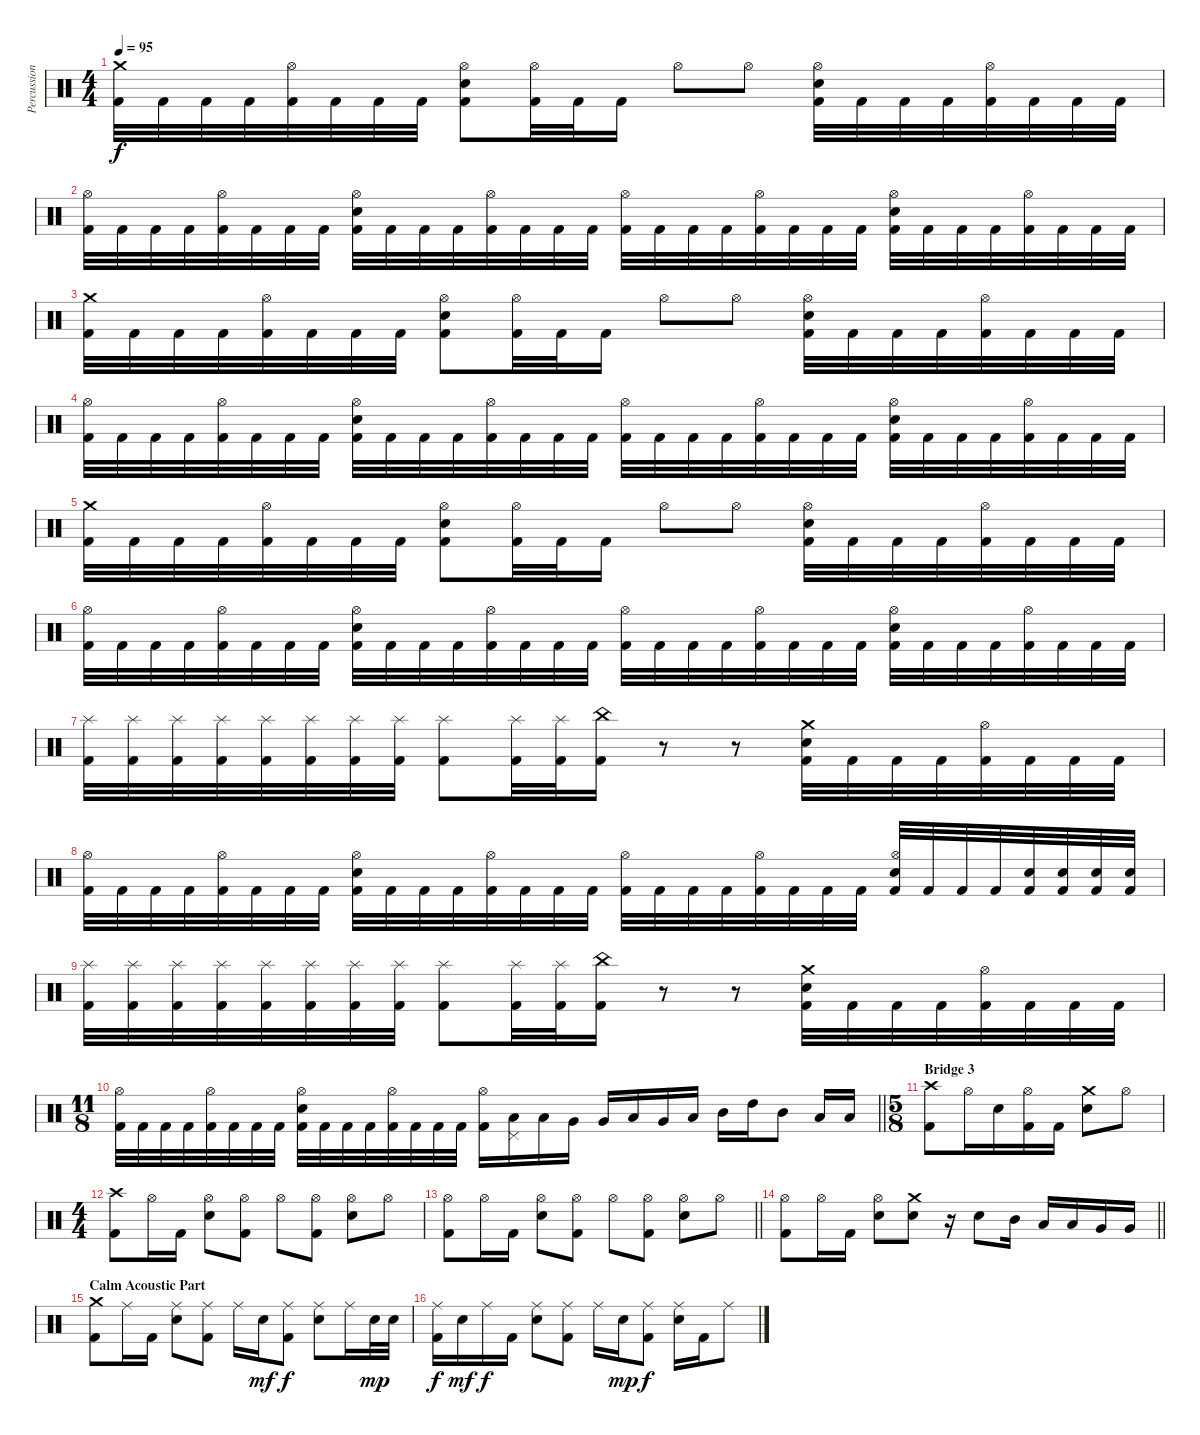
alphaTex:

\track ("Percussion" "Percussion") {instrument percussion}
\staff {score}
\articulation defaults
\ts (4 4)
\tempo 95
\clef neutral
\ks c
("Crash medium (hit)" "Kick (hit) 2").32{dy f} "Kick (hit) 2".32 "Kick (hit) 2".32 "Kick (hit) 2".32 ("Hi-Hat (open)" "Kick (hit) 2").32 "Kick (hit) 2".32 "Kick (hit) 2".32 "Kick (hit) 2".32 ("Hi-Hat (open)" "Electric Snare (hit)" "Kick (hit) 2").8 ("Hi-Hat (open)" "Kick (hit) 2").32 "Kick (hit) 2".32 "Kick (hit) 2".16 "Hi-Hat (open)".8 "Hi-Hat (open)".8 ("Hi-Hat (open)" "Electric Snare (hit)" "Kick (hit) 2").32 "Kick (hit) 2".32 "Kick (hit) 2".32 "Kick (hit) 2".32 ("Hi-Hat (open)" "Kick (hit) 2").32 "Kick (hit) 2".32 "Kick (hit) 2".32 "Kick (hit) 2".32 |
("Hi-Hat (open)" "Kick (hit) 2").32 "Kick (hit) 2".32 "Kick (hit) 2".32 "Kick (hit) 2".32 ("Hi-Hat (open)" "Kick (hit) 2").32 "Kick (hit) 2".32 "Kick (hit) 2".32 "Kick (hit) 2".32 ("Hi-Hat (open)" "Electric Snare (hit)" "Kick (hit) 2").32 "Kick (hit) 2".32 "Kick (hit) 2".32 "Kick (hit) 2".32 ("Hi-Hat (open)" "Kick (hit) 2").32 "Kick (hit) 2".32 "Kick (hit) 2".32 "Kick (hit) 2".32 ("Hi-Hat (open)" "Kick (hit) 2").32 "Kick (hit) 2".32 "Kick (hit) 2".32 "Kick (hit) 2".32 ("Hi-Hat (open)" "Kick (hit) 2").32 "Kick (hit) 2".32 "Kick (hit) 2".32 "Kick (hit) 2".32 ("Hi-Hat (open)" "Electric Snare (hit)" "Kick (hit) 2").32 "Kick (hit) 2".32 "Kick (hit) 2".32 "Kick (hit) 2".32 ("Hi-Hat (open)" "Kick (hit) 2").32 "Kick (hit) 2".32 "Kick (hit) 2".32 "Kick (hit) 2".32 |
("Crash medium (hit)" "Kick (hit) 2").32 "Kick (hit) 2".32 "Kick (hit) 2".32 "Kick (hit) 2".32 ("Hi-Hat (open)" "Kick (hit) 2").32 "Kick (hit) 2".32 "Kick (hit) 2".32 "Kick (hit) 2".32 ("Hi-Hat (open)" "Electric Snare (hit)" "Kick (hit) 2").8 ("Hi-Hat (open)" "Kick (hit) 2").32 "Kick (hit) 2".32 "Kick (hit) 2".16 "Hi-Hat (open)".8 "Hi-Hat (open)".8 ("Hi-Hat (open)" "Electric Snare (hit)" "Kick (hit) 2").32 "Kick (hit) 2".32 "Kick (hit) 2".32 "Kick (hit) 2".32 ("Hi-Hat (open)" "Kick (hit) 2").32 "Kick (hit) 2".32 "Kick (hit) 2".32 "Kick (hit) 2".32 |
("Hi-Hat (open)" "Kick (hit) 2").32 "Kick (hit) 2".32 "Kick (hit) 2".32 "Kick (hit) 2".32 ("Hi-Hat (open)" "Kick (hit) 2").32 "Kick (hit) 2".32 "Kick (hit) 2".32 "Kick (hit) 2".32 ("Hi-Hat (open)" "Electric Snare (hit)" "Kick (hit) 2").32 "Kick (hit) 2".32 "Kick (hit) 2".32 "Kick (hit) 2".32 ("Hi-Hat (open)" "Kick (hit) 2").32 "Kick (hit) 2".32 "Kick (hit) 2".32 "Kick (hit) 2".32 ("Hi-Hat (open)" "Kick (hit) 2").32 "Kick (hit) 2".32 "Kick (hit) 2".32 "Kick (hit) 2".32 ("Hi-Hat (open)" "Kick (hit) 2").32 "Kick (hit) 2".32 "Kick (hit) 2".32 "Kick (hit) 2".32 ("Hi-Hat (open)" "Electric Snare (hit)" "Kick (hit) 2").32 "Kick (hit) 2".32 "Kick (hit) 2".32 "Kick (hit) 2".32 ("Hi-Hat (open)" "Kick (hit) 2").32 "Kick (hit) 2".32 "Kick (hit) 2".32 "Kick (hit) 2".32 |
("Crash medium (hit)" "Kick (hit) 2").32 "Kick (hit) 2".32 "Kick (hit) 2".32 "Kick (hit) 2".32 ("Hi-Hat (open)" "Kick (hit) 2").32 "Kick (hit) 2".32 "Kick (hit) 2".32 "Kick (hit) 2".32 ("Hi-Hat (open)" "Electric Snare (hit)" "Kick (hit) 2").8 ("Hi-Hat (open)" "Kick (hit) 2").32 "Kick (hit) 2".32 "Kick (hit) 2".16 "Hi-Hat (open)".8 "Hi-Hat (open)".8 ("Hi-Hat (open)" "Electric Snare (hit)" "Kick (hit) 2").32 "Kick (hit) 2".32 "Kick (hit) 2".32 "Kick (hit) 2".32 ("Hi-Hat (open)" "Kick (hit) 2").32 "Kick (hit) 2".32 "Kick (hit) 2".32 "Kick (hit) 2".32 |
("Hi-Hat (open)" "Kick (hit) 2").32 "Kick (hit) 2".32 "Kick (hit) 2".32 "Kick (hit) 2".32 ("Hi-Hat (open)" "Kick (hit) 2").32 "Kick (hit) 2".32 "Kick (hit) 2".32 "Kick (hit) 2".32 ("Hi-Hat (open)" "Electric Snare (hit)" "Kick (hit) 2").32 "Kick (hit) 2".32 "Kick (hit) 2".32 "Kick (hit) 2".32 ("Hi-Hat (open)" "Kick (hit) 2").32 "Kick (hit) 2".32 "Kick (hit) 2".32 "Kick (hit) 2".32 ("Hi-Hat (open)" "Kick (hit) 2").32 "Kick (hit) 2".32 "Kick (hit) 2".32 "Kick (hit) 2".32 ("Hi-Hat (open)" "Kick (hit) 2").32 "Kick (hit) 2".32 "Kick (hit) 2".32 "Kick (hit) 2".32 ("Hi-Hat (open)" "Electric Snare (hit)" "Kick (hit) 2").32 "Kick (hit) 2".32 "Kick (hit) 2".32 "Kick (hit) 2".32 ("Hi-Hat (open)" "Kick (hit) 2").32 "Kick (hit) 2".32 "Kick (hit) 2".32 "Kick (hit) 2".32 |
("Splash (hit)" "Kick (hit) 2").32 ("Splash (hit)" "Kick (hit) 2").32 ("Splash (hit)" "Kick (hit) 2").32 ("Splash (hit)" "Kick (hit) 2").32 ("Splash (hit)" "Kick (hit) 2").32 ("Splash (hit)" "Kick (hit) 2").32 ("Splash (hit)" "Kick (hit) 2").32 ("Splash (hit)" "Kick (hit) 2").32 ("Splash (hit)" "Kick (hit) 2").8 ("Splash (hit)" "Kick (hit) 2").32 ("Splash (hit)" "Kick (hit) 2").32 ("China (hit)" "Kick (hit) 2").16 r.8 r.8 ("Crash medium (hit)" "Electric Snare (hit)" "Kick (hit) 2").32 "Kick (hit) 2".32 "Kick (hit) 2".32 "Kick (hit) 2".32 ("Hi-Hat (open)" "Kick (hit) 2").32 "Kick (hit) 2".32 "Kick (hit) 2".32 "Kick (hit) 2".32 |
("Hi-Hat (open)" "Kick (hit) 2").32 "Kick (hit) 2".32 "Kick (hit) 2".32 "Kick (hit) 2".32 ("Hi-Hat (open)" "Kick (hit) 2").32 "Kick (hit) 2".32 "Kick (hit) 2".32 "Kick (hit) 2".32 ("Hi-Hat (open)" "Electric Snare (hit)" "Kick (hit) 2").32 "Kick (hit) 2".32 "Kick (hit) 2".32 "Kick (hit) 2".32 ("Hi-Hat (open)" "Kick (hit) 2").32 "Kick (hit) 2".32 "Kick (hit) 2".32 "Kick (hit) 2".32 ("Hi-Hat (open)" "Kick (hit) 2").32 "Kick (hit) 2".32 "Kick (hit) 2".32 "Kick (hit) 2".32 ("Hi-Hat (open)" "Kick (hit) 2").32 "Kick (hit) 2".32 "Kick (hit) 2".32 "Kick (hit) 2".32 ("Hi-Hat (open)" "Electric Snare (hit)" "Kick (hit) 2").32 "Kick (hit) 2".32 "Kick (hit) 2".32 "Kick (hit) 2".32 ("Electric Snare (hit)" "Kick (hit) 2").32 ("Electric Snare (hit)" "Kick (hit) 2").32 ("Electric Snare (hit)" "Kick (hit) 2").32 ("Electric Snare (hit)" "Kick (hit) 2").32 |
("Splash (hit)" "Kick (hit) 2").32 ("Splash (hit)" "Kick (hit) 2").32 ("Splash (hit)" "Kick (hit) 2").32 ("Splash (hit)" "Kick (hit) 2").32 ("Splash (hit)" "Kick (hit) 2").32 ("Splash (hit)" "Kick (hit) 2").32 ("Splash (hit)" "Kick (hit) 2").32 ("Splash (hit)" "Kick (hit) 2").32 ("Splash (hit)" "Kick (hit) 2").8 ("Splash (hit)" "Kick (hit) 2").32 ("Splash (hit)" "Kick (hit) 2").32 ("China (hit)" "Kick (hit) 2").16 r.8 r.8 ("Crash medium (hit)" "Electric Snare (hit)" "Kick (hit) 2").32 "Kick (hit) 2".32 "Kick (hit) 2".32 "Kick (hit) 2".32 ("Hi-Hat (open)" "Kick (hit) 2").32 "Kick (hit) 2".32 "Kick (hit) 2".32 "Kick (hit) 2".32 |
\ts (11 8)
\barLineRight lightlight
("Hi-Hat (open)" "Kick (hit) 2").32 "Kick (hit) 2".32 "Kick (hit) 2".32 "Kick (hit) 2".32 ("Hi-Hat (open)" "Kick (hit) 2").32 "Kick (hit) 2".32 "Kick (hit) 2".32 "Kick (hit) 2".32 ("Hi-Hat (open)" "Electric Snare (hit)" "Kick (hit) 2").32 "Kick (hit) 2".32 "Kick (hit) 2".32 "Kick (hit) 2".32 ("Hi-Hat (open)" "Kick (hit) 2").32 "Kick (hit) 2".32 "Kick (hit) 2".32 "Kick (hit) 2".32 ("Hi-Hat (open)" "Kick (hit) 2").16 ("Pedal Hi-Hat (hit)" "Low Tom (hit)").16 "Low Tom (hit)".16 "Very Low Tom (hit)".16 "Very Low Tom (hit)".16 "Low Tom (hit)".16 "Very Low Tom (hit)".16 "Low Tom (hit)".16 "Mid Tom (hit)".16 "High Tom (hit)".16 "Mid Tom (hit)".8 "Low Tom (hit)".16 "Low Tom (hit)".16 |
\ts (5 8)
\section ("" "Bridge 3")
("Crash high (hit)" "Kick (hit) 2").8 "Hi-Hat (open)".16 "Electric Snare (hit)".16 ("Hi-Hat (open)" "Kick (hit) 2").16 "Kick (hit) 2".16 ("Crash medium (hit)" "Electric Snare (hit)").8 "Hi-Hat (open)".8 |
\ts (4 4)
("Crash high (hit)" "Kick (hit) 2").8 "Hi-Hat (open)".16 "Kick (hit) 2".16 ("Hi-Hat (open)" "Electric Snare (hit)").8 ("Hi-Hat (open)" "Kick (hit) 2").8 "Hi-Hat (open)".8 ("Hi-Hat (open)" "Kick (hit) 2").8 ("Hi-Hat (open)" "Electric Snare (hit)").8 "Hi-Hat (open)".8 |
\barLineRight lightlight
("Hi-Hat (open)" "Kick (hit) 2").8 "Hi-Hat (open)".16 "Kick (hit) 2".16 ("Hi-Hat (open)" "Electric Snare (hit)").8 ("Hi-Hat (open)" "Kick (hit) 2").8 "Hi-Hat (open)".8 ("Hi-Hat (open)" "Kick (hit) 2").8 ("Hi-Hat (open)" "Electric Snare (hit)").8 "Hi-Hat (open)".8 |
\barLineRight lightlight
("Hi-Hat (open)" "Kick (hit) 2").8 "Hi-Hat (open)".16 "Kick (hit) 2".16 ("Hi-Hat (open)" "Electric Snare (hit)").8 ("Crash medium (hit)" "Electric Snare (hit)").8 r.16 "Electric Snare (hit)".8 "Mid Tom (hit)".16 "Low Tom (hit)".16 "Low Tom (hit)".16 "Very Low Tom (hit)".16 "Very Low Tom (hit)".16 |
\section ("" "Calm Acoustic Part")
("Crash medium (hit)" "Kick (hit) 2").8 "Ride (middle)".16 "Kick (hit) 2".16 ("Ride (middle)" "Electric Snare (hit)").8 ("Ride (middle)" "Kick (hit) 2").8 "Ride (middle)".16 "Electric Snare (hit)".16{dy mf} ("Ride (middle)" "Kick (hit) 2").8{dy f} ("Ride (middle)" "Electric Snare (hit)").8 "Ride (middle)".16 "Electric Snare (hit)".32{dy mp} "Electric Snare (hit)".32 |
("Ride (middle)" "Kick (hit) 2").16{dy f} "Electric Snare (hit)".16{dy mf} "Ride (middle)".16{dy f} "Kick (hit) 2".16 ("Ride (middle)" "Electric Snare (hit)").8 ("Ride (middle)" "Kick (hit) 2").8 "Ride (middle)".16 "Electric Snare (hit)".16{dy mp} ("Ride (middle)" "Kick (hit) 2").8{dy f} ("Ride (middle)" "Electric Snare (hit)").16 "Kick (hit) 2".16 "Ride (middle)".8
